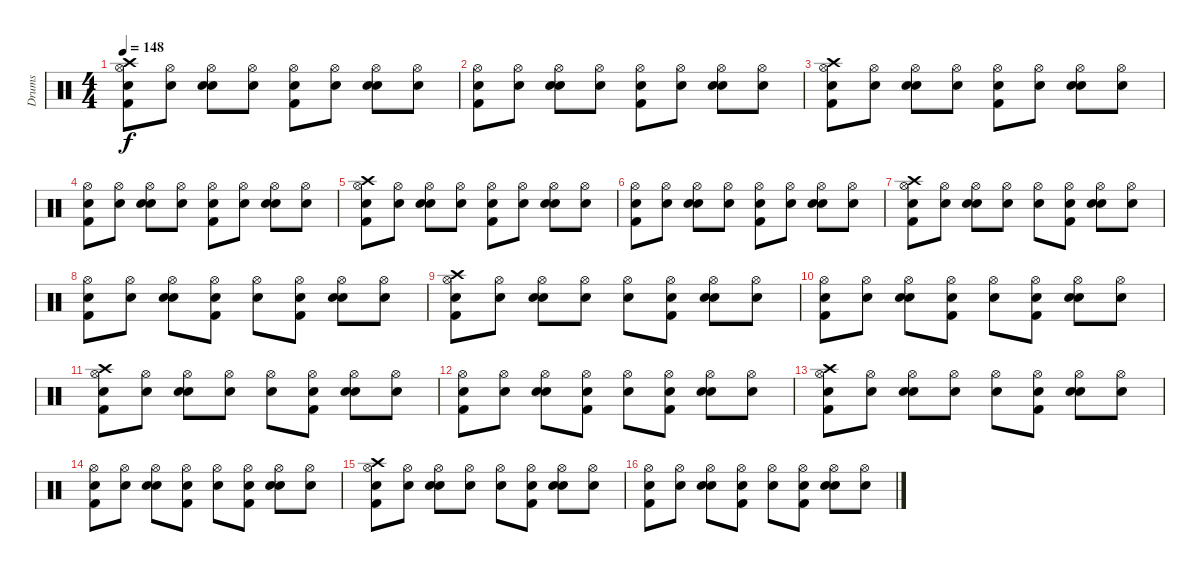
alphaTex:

\track ("Drums" "Drums") {instrument percussion}
\staff {score}
\articulation defaults
\ts (4 4)
\tempo 148
\clef neutral
\ks c
("Snare (hit)" "Kick (hit) 2" "Hi-Hat (open)" "Crash high (hit)").8{dy f} ("Snare (hit)" "Hi-Hat (open)").8 ("Snare (hit)" "Snare (hit) 2" "Hi-Hat (open)").8 ("Snare (hit)" "Hi-Hat (open)").8 ("Snare (hit)" "Kick (hit) 2" "Hi-Hat (open)").8 ("Snare (hit)" "Hi-Hat (open)").8 ("Snare (hit)" "Snare (hit) 2" "Hi-Hat (open)").8 ("Snare (hit)" "Hi-Hat (open)").8 |
("Snare (hit)" "Kick (hit) 2" "Hi-Hat (open)").8 ("Snare (hit)" "Hi-Hat (open)").8 ("Snare (hit)" "Snare (hit) 2" "Hi-Hat (open)").8 ("Snare (hit)" "Hi-Hat (open)").8 ("Snare (hit)" "Kick (hit) 2" "Hi-Hat (open)").8 ("Snare (hit)" "Hi-Hat (open)").8 ("Snare (hit)" "Snare (hit) 2" "Hi-Hat (open)").8 ("Snare (hit)" "Hi-Hat (open)").8 |
("Snare (hit)" "Kick (hit) 2" "Hi-Hat (open)" "Crash high (hit)").8 ("Snare (hit)" "Hi-Hat (open)").8 ("Snare (hit)" "Snare (hit) 2" "Hi-Hat (open)").8 ("Snare (hit)" "Hi-Hat (open)").8 ("Snare (hit)" "Kick (hit) 2" "Hi-Hat (open)").8 ("Snare (hit)" "Hi-Hat (open)").8 ("Snare (hit)" "Snare (hit) 2" "Hi-Hat (open)").8 ("Snare (hit)" "Hi-Hat (open)").8 |
("Snare (hit)" "Kick (hit) 2" "Hi-Hat (open)").8 ("Snare (hit)" "Hi-Hat (open)").8 ("Snare (hit)" "Snare (hit) 2" "Hi-Hat (open)").8 ("Snare (hit)" "Hi-Hat (open)").8 ("Snare (hit)" "Kick (hit) 2" "Hi-Hat (open)").8 ("Snare (hit)" "Hi-Hat (open)").8 ("Snare (hit)" "Snare (hit) 2" "Hi-Hat (open)").8 ("Snare (hit)" "Hi-Hat (open)").8 |
("Snare (hit)" "Kick (hit) 2" "Hi-Hat (open)" "Crash high (hit)").8 ("Snare (hit)" "Hi-Hat (open)").8 ("Snare (hit)" "Snare (hit) 2" "Hi-Hat (open)").8 ("Snare (hit)" "Hi-Hat (open)").8 ("Snare (hit)" "Kick (hit) 2" "Hi-Hat (open)").8 ("Snare (hit)" "Hi-Hat (open)").8 ("Snare (hit)" "Snare (hit) 2" "Hi-Hat (open)").8 ("Snare (hit)" "Hi-Hat (open)").8 |
("Snare (hit)" "Kick (hit) 2" "Hi-Hat (open)").8 ("Snare (hit)" "Hi-Hat (open)").8 ("Snare (hit)" "Snare (hit) 2" "Hi-Hat (open)").8 ("Snare (hit)" "Hi-Hat (open)").8 ("Snare (hit)" "Kick (hit) 2" "Hi-Hat (open)").8 ("Snare (hit)" "Hi-Hat (open)").8 ("Snare (hit)" "Snare (hit) 2" "Hi-Hat (open)").8 ("Snare (hit)" "Hi-Hat (open)").8 |
("Snare (hit)" "Kick (hit) 2" "Hi-Hat (open)" "Crash high (hit)").8 ("Snare (hit)" "Hi-Hat (open)").8 ("Snare (hit)" "Snare (hit) 2" "Hi-Hat (open)").8 ("Snare (hit)" "Hi-Hat (open)").8 ("Snare (hit)" "Hi-Hat (open)").8 ("Snare (hit)" "Kick (hit) 2" "Hi-Hat (open)").8 ("Snare (hit)" "Snare (hit) 2" "Hi-Hat (open)").8 ("Snare (hit)" "Hi-Hat (open)").8 |
("Snare (hit)" "Kick (hit) 2" "Hi-Hat (open)").8 ("Snare (hit)" "Hi-Hat (open)").8 ("Snare (hit)" "Snare (hit) 2" "Hi-Hat (open)").8 ("Snare (hit)" "Kick (hit) 2" "Hi-Hat (open)").8 ("Snare (hit)" "Hi-Hat (open)").8 ("Snare (hit)" "Kick (hit) 2" "Hi-Hat (open)").8 ("Snare (hit)" "Snare (hit) 2" "Hi-Hat (open)").8 ("Snare (hit)" "Hi-Hat (open)").8 |
("Snare (hit)" "Kick (hit) 2" "Hi-Hat (open)" "Crash high (hit)").8 ("Snare (hit)" "Hi-Hat (open)").8 ("Snare (hit)" "Snare (hit) 2" "Hi-Hat (open)").8 ("Snare (hit)" "Hi-Hat (open)").8 ("Snare (hit)" "Hi-Hat (open)").8 ("Snare (hit)" "Kick (hit) 2" "Hi-Hat (open)").8 ("Snare (hit)" "Snare (hit) 2" "Hi-Hat (open)").8 ("Snare (hit)" "Hi-Hat (open)").8 |
("Snare (hit)" "Kick (hit) 2" "Hi-Hat (open)").8 ("Snare (hit)" "Hi-Hat (open)").8 ("Snare (hit)" "Snare (hit) 2" "Hi-Hat (open)").8 ("Snare (hit)" "Kick (hit) 2" "Hi-Hat (open)").8 ("Snare (hit)" "Hi-Hat (open)").8 ("Snare (hit)" "Kick (hit) 2" "Hi-Hat (open)").8 ("Snare (hit)" "Snare (hit) 2" "Hi-Hat (open)").8 ("Snare (hit)" "Hi-Hat (open)").8 |
("Snare (hit)" "Kick (hit) 2" "Hi-Hat (open)" "Crash high (hit)").8 ("Snare (hit)" "Hi-Hat (open)").8 ("Snare (hit)" "Snare (hit) 2" "Hi-Hat (open)").8 ("Snare (hit)" "Hi-Hat (open)").8 ("Snare (hit)" "Hi-Hat (open)").8 ("Snare (hit)" "Kick (hit) 2" "Hi-Hat (open)").8 ("Snare (hit)" "Snare (hit) 2" "Hi-Hat (open)").8 ("Snare (hit)" "Hi-Hat (open)").8 |
("Snare (hit)" "Kick (hit) 2" "Hi-Hat (open)").8 ("Snare (hit)" "Hi-Hat (open)").8 ("Snare (hit)" "Snare (hit) 2" "Hi-Hat (open)").8 ("Snare (hit)" "Kick (hit) 2" "Hi-Hat (open)").8 ("Snare (hit)" "Hi-Hat (open)").8 ("Snare (hit)" "Kick (hit) 2" "Hi-Hat (open)").8 ("Snare (hit)" "Snare (hit) 2" "Hi-Hat (open)").8 ("Snare (hit)" "Hi-Hat (open)").8 |
("Snare (hit)" "Kick (hit) 2" "Hi-Hat (open)" "Crash high (hit)").8 ("Snare (hit)" "Hi-Hat (open)").8 ("Snare (hit)" "Snare (hit) 2" "Hi-Hat (open)").8 ("Snare (hit)" "Hi-Hat (open)").8 ("Snare (hit)" "Hi-Hat (open)").8 ("Snare (hit)" "Kick (hit) 2" "Hi-Hat (open)").8 ("Snare (hit)" "Snare (hit) 2" "Hi-Hat (open)").8 ("Snare (hit)" "Hi-Hat (open)").8 |
("Snare (hit)" "Kick (hit) 2" "Hi-Hat (open)").8 ("Snare (hit)" "Hi-Hat (open)").8 ("Snare (hit)" "Snare (hit) 2" "Hi-Hat (open)").8 ("Snare (hit)" "Kick (hit) 2" "Hi-Hat (open)").8 ("Snare (hit)" "Hi-Hat (open)").8 ("Snare (hit)" "Kick (hit) 2" "Hi-Hat (open)").8 ("Snare (hit)" "Snare (hit) 2" "Hi-Hat (open)").8 ("Snare (hit)" "Hi-Hat (open)").8 |
("Snare (hit)" "Kick (hit) 2" "Hi-Hat (open)" "Crash high (hit)").8 ("Snare (hit)" "Hi-Hat (open)").8 ("Snare (hit)" "Snare (hit) 2" "Hi-Hat (open)").8 ("Snare (hit)" "Hi-Hat (open)").8 ("Snare (hit)" "Hi-Hat (open)").8 ("Snare (hit)" "Kick (hit) 2" "Hi-Hat (open)").8 ("Snare (hit)" "Snare (hit) 2" "Hi-Hat (open)").8 ("Snare (hit)" "Hi-Hat (open)").8 |
("Snare (hit)" "Kick (hit) 2" "Hi-Hat (open)").8 ("Snare (hit)" "Hi-Hat (open)").8 ("Snare (hit)" "Snare (hit) 2" "Hi-Hat (open)").8 ("Snare (hit)" "Kick (hit) 2" "Hi-Hat (open)").8 ("Snare (hit)" "Hi-Hat (open)").8 ("Snare (hit)" "Kick (hit) 2" "Hi-Hat (open)").8 ("Snare (hit)" "Snare (hit) 2" "Hi-Hat (open)").8 ("Snare (hit)" "Hi-Hat (open)").8
